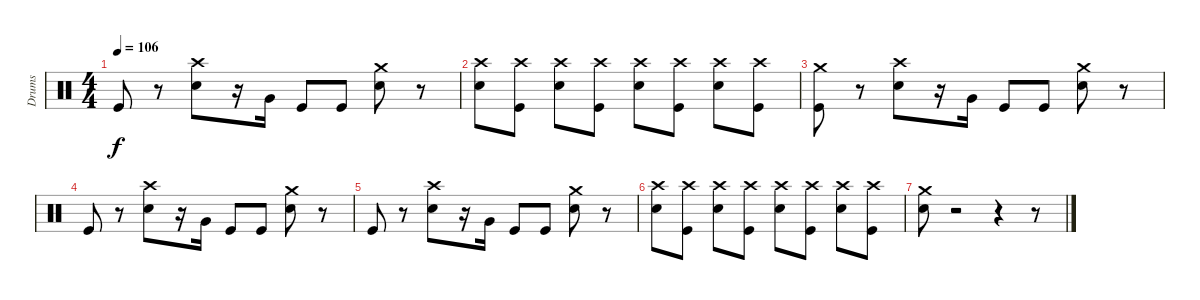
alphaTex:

\track ("Drums" "Drums") {instrument percussion}
\staff {score}
\articulation defaults
\ts (4 4)
\tempo 106
\clef neutral
\ks c "Kick (hit)".8{dy f}
r.8 ("Electric Snare (hit)" "Crash high (hit)").8 r.16 "Very Low Tom (hit)".16 "Kick (hit)".8 "Kick (hit)".8 ("Electric Snare (hit)" "Crash medium (hit)").8 r.8 |
("Electric Snare (hit)" "Crash high (hit)").8 ("Kick (hit)" "Crash high (hit)").8 ("Electric Snare (hit)" "Crash high (hit)").8 ("Kick (hit)" "Crash high (hit)").8 ("Electric Snare (hit)" "Crash high (hit)").8 ("Kick (hit)" "Crash high (hit)").8 ("Electric Snare (hit)" "Crash high (hit)").8 ("Kick (hit)" "Crash high (hit)").8 |
("Kick (hit)" "Crash medium (hit)").8 r.8 ("Electric Snare (hit)" "Crash high (hit)").8 r.16 "Very Low Tom (hit)".16 "Kick (hit)".8 "Kick (hit)".8 ("Electric Snare (hit)" "Crash medium (hit)").8 r.8 |
"Kick (hit)".8 r.8 ("Electric Snare (hit)" "Crash high (hit)").8 r.16 "Very Low Tom (hit)".16 "Kick (hit)".8 "Kick (hit)".8 ("Electric Snare (hit)" "Crash medium (hit)").8 r.8 |
"Kick (hit)".8 r.8 ("Electric Snare (hit)" "Crash high (hit)").8 r.16 "Very Low Tom (hit)".16 "Kick (hit)".8 "Kick (hit)".8 ("Electric Snare (hit)" "Crash medium (hit)").8 r.8 |
("Electric Snare (hit)" "Crash high (hit)").8 ("Kick (hit)" "Crash high (hit)").8 ("Electric Snare (hit)" "Crash high (hit)").8 ("Kick (hit)" "Crash high (hit)").8 ("Electric Snare (hit)" "Crash high (hit)").8 ("Kick (hit)" "Crash high (hit)").8 ("Electric Snare (hit)" "Crash high (hit)").8 ("Kick (hit)" "Crash high (hit)").8 |
("Electric Snare (hit)" "Crash medium (hit)").8 r.2 r.4 r.8
